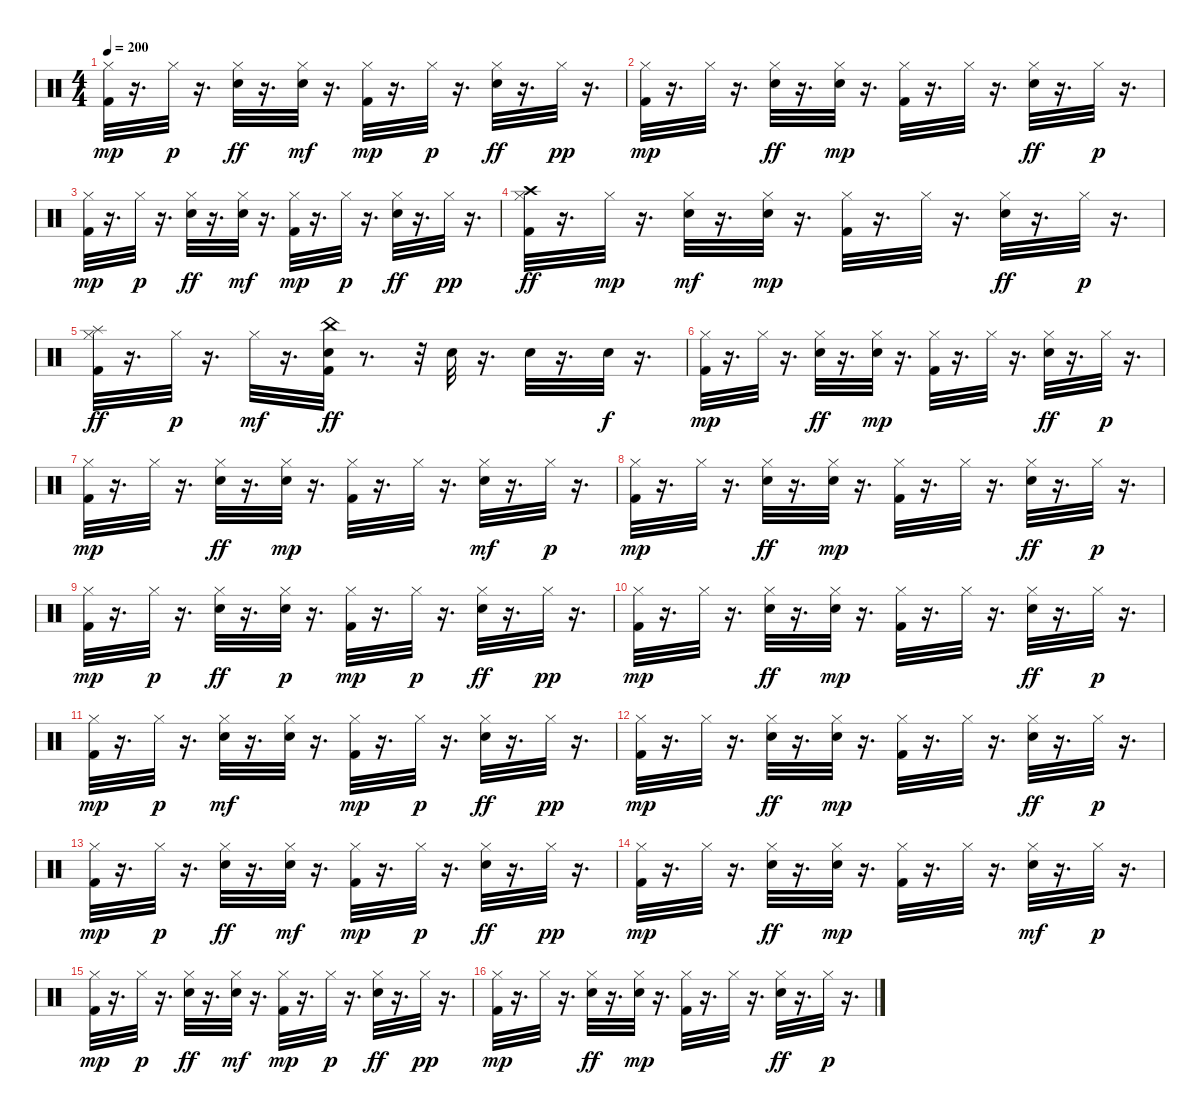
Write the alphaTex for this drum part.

\track "" {instrument percussion}
\staff {score}
\articulation defaults
\ts (4 4)
\tempo 200
\clef neutral
\ks c
("Kick (hit) 2" "Hi-Hat (closed)").32{dy mp} r.16{d} "Hi-Hat (closed)".32{dy p} r.16{d} ("Hi-Hat (closed)" "Electric Snare (hit)").32{dy ff} r.16{d} ("Hi-Hat (closed)" "Electric Snare (hit)").32{dy mf} r.16{d} ("Kick (hit) 2" "Hi-Hat (closed)").32{dy mp} r.16{d} "Hi-Hat (closed)".32{dy p} r.16{d} ("Hi-Hat (closed)" "Electric Snare (hit)").32{dy ff} r.16{d} "Hi-Hat (closed)".32{dy pp} r.16{d} |
("Kick (hit) 2" "Hi-Hat (closed)").32{dy mp} r.16{d} "Hi-Hat (closed)".32 r.16{d} ("Hi-Hat (closed)" "Electric Snare (hit)").32{dy ff} r.16{d} ("Hi-Hat (closed)" "Electric Snare (hit)").32{dy mp} r.16{d} ("Kick (hit) 2" "Hi-Hat (closed)").32 r.16{d} "Hi-Hat (closed)".32 r.16{d} ("Hi-Hat (closed)" "Electric Snare (hit)").32{dy ff} r.16{d} "Hi-Hat (closed)".32{dy p} r.16{d} |
("Kick (hit) 2" "Hi-Hat (closed)").32{dy mp} r.16{d} "Hi-Hat (closed)".32{dy p} r.16{d} ("Hi-Hat (closed)" "Electric Snare (hit)").32{dy ff} r.16{d} ("Hi-Hat (closed)" "Electric Snare (hit)").32{dy mf} r.16{d} ("Kick (hit) 2" "Hi-Hat (closed)").32{dy mp} r.16{d} "Hi-Hat (closed)".32{dy p} r.16{d} ("Hi-Hat (closed)" "Electric Snare (hit)").32{dy ff} r.16{d} "Hi-Hat (closed)".32{dy pp} r.16{d} |
("Kick (hit) 2" "Hi-Hat (closed)" "Crash high (hit)").32{dy ff} r.16{d} "Hi-Hat (closed)".32{dy mp} r.16{d} ("Electric Snare (hit)" "Hi-Hat (closed)").32{dy mf} r.16{d} ("Hi-Hat (closed)" "Electric Snare (hit)").32{dy mp} r.16{d} ("Kick (hit) 2" "Hi-Hat (closed)").32 r.16{d} "Hi-Hat (closed)".32 r.16{d} ("Hi-Hat (closed)" "Electric Snare (hit)").32{dy ff} r.16{d} "Hi-Hat (closed)".32{dy p} r.16{d} |
("Kick (hit) 2" "Hi-Hat (closed)" "Splash (hit)").32{dy ff} r.16{d} "Hi-Hat (closed)".32{dy p} r.16{d} "Hi-Hat (closed)".32{dy mf} r.16{d} ("Kick (hit) 2" "Electric Snare (hit)" "China (hit)").32{dy ff} r.8{d} r.32 "Electric Snare (hit)".32 r.16{d} "Electric Snare (hit)".32 r.16{d} "Electric Snare (hit)".32{dy f} r.16{d} |
("Kick (hit) 2" "Hi-Hat (closed)").32{dy mp} r.16{d} "Hi-Hat (closed)".32 r.16{d} ("Hi-Hat (closed)" "Electric Snare (hit)").32{dy ff} r.16{d} ("Hi-Hat (closed)" "Electric Snare (hit)").32{dy mp} r.16{d} ("Kick (hit) 2" "Hi-Hat (closed)").32 r.16{d} "Hi-Hat (closed)".32 r.16{d} ("Hi-Hat (closed)" "Electric Snare (hit)").32{dy ff} r.16{d} "Hi-Hat (closed)".32{dy p} r.16{d} |
("Kick (hit) 2" "Hi-Hat (closed)").32{dy mp} r.16{d} "Hi-Hat (closed)".32 r.16{d} ("Hi-Hat (closed)" "Electric Snare (hit)").32{dy ff} r.16{d} ("Hi-Hat (closed)" "Electric Snare (hit)").32{dy mp} r.16{d} ("Kick (hit) 2" "Hi-Hat (closed)").32 r.16{d} "Hi-Hat (closed)".32 r.16{d} ("Electric Snare (hit)" "Hi-Hat (closed)").32{dy mf} r.16{d} "Hi-Hat (closed)".32{dy p} r.16{d} |
("Kick (hit) 2" "Hi-Hat (closed)").32{dy mp} r.16{d} "Hi-Hat (closed)".32 r.16{d} ("Hi-Hat (closed)" "Electric Snare (hit)").32{dy ff} r.16{d} ("Hi-Hat (closed)" "Electric Snare (hit)").32{dy mp} r.16{d} ("Kick (hit) 2" "Hi-Hat (closed)").32 r.16{d} "Hi-Hat (closed)".32 r.16{d} ("Hi-Hat (closed)" "Electric Snare (hit)").32{dy ff} r.16{d} "Hi-Hat (closed)".32{dy p} r.16{d} |
("Kick (hit) 2" "Hi-Hat (closed)").32{dy mp} r.16{d} "Hi-Hat (closed)".32{dy p} r.16{d} ("Hi-Hat (closed)" "Electric Snare (hit)").32{dy ff} r.16{d} ("Electric Snare (hit)" "Hi-Hat (closed)").32{dy p} r.16{d} ("Kick (hit) 2" "Hi-Hat (closed)").32{dy mp} r.16{d} "Hi-Hat (closed)".32{dy p} r.16{d} ("Hi-Hat (closed)" "Electric Snare (hit)").32{dy ff} r.16{d} "Hi-Hat (closed)".32{dy pp} r.16{d} |
("Kick (hit) 2" "Hi-Hat (closed)").32{dy mp} r.16{d} "Hi-Hat (closed)".32 r.16{d} ("Hi-Hat (closed)" "Electric Snare (hit)").32{dy ff} r.16{d} ("Hi-Hat (closed)" "Electric Snare (hit)").32{dy mp} r.16{d} ("Kick (hit) 2" "Hi-Hat (closed)").32 r.16{d} "Hi-Hat (closed)".32 r.16{d} ("Hi-Hat (closed)" "Electric Snare (hit)").32{dy ff} r.16{d} "Hi-Hat (closed)".32{dy p} r.16{d} |
("Kick (hit) 2" "Hi-Hat (closed)").32{dy mp} r.16{d} "Hi-Hat (closed)".32{dy p} r.16{d} ("Electric Snare (hit)" "Hi-Hat (closed)").32{dy mf} r.16{d} ("Hi-Hat (closed)" "Electric Snare (hit)").32 r.16{d} ("Kick (hit) 2" "Hi-Hat (closed)").32{dy mp} r.16{d} "Hi-Hat (closed)".32{dy p} r.16{d} ("Hi-Hat (closed)" "Electric Snare (hit)").32{dy ff} r.16{d} "Hi-Hat (closed)".32{dy pp} r.16{d} |
("Kick (hit) 2" "Hi-Hat (closed)").32{dy mp} r.16{d} "Hi-Hat (closed)".32 r.16{d} ("Hi-Hat (closed)" "Electric Snare (hit)").32{dy ff} r.16{d} ("Hi-Hat (closed)" "Electric Snare (hit)").32{dy mp} r.16{d} ("Kick (hit) 2" "Hi-Hat (closed)").32 r.16{d} "Hi-Hat (closed)".32 r.16{d} ("Hi-Hat (closed)" "Electric Snare (hit)").32{dy ff} r.16{d} "Hi-Hat (closed)".32{dy p} r.16{d} |
("Kick (hit) 2" "Hi-Hat (closed)").32{dy mp} r.16{d} "Hi-Hat (closed)".32{dy p} r.16{d} ("Hi-Hat (closed)" "Electric Snare (hit)").32{dy ff} r.16{d} ("Hi-Hat (closed)" "Electric Snare (hit)").32{dy mf} r.16{d} ("Kick (hit) 2" "Hi-Hat (closed)").32{dy mp} r.16{d} "Hi-Hat (closed)".32{dy p} r.16{d} ("Hi-Hat (closed)" "Electric Snare (hit)").32{dy ff} r.16{d} "Hi-Hat (closed)".32{dy pp} r.16{d} |
("Kick (hit) 2" "Hi-Hat (closed)").32{dy mp} r.16{d} "Hi-Hat (closed)".32 r.16{d} ("Hi-Hat (closed)" "Electric Snare (hit)").32{dy ff} r.16{d} ("Hi-Hat (closed)" "Electric Snare (hit)").32{dy mp} r.16{d} ("Kick (hit) 2" "Hi-Hat (closed)").32 r.16{d} "Hi-Hat (closed)".32 r.16{d} ("Electric Snare (hit)" "Hi-Hat (closed)").32{dy mf} r.16{d} "Hi-Hat (closed)".32{dy p} r.16{d} |
("Kick (hit) 2" "Hi-Hat (closed)").32{dy mp} r.16{d} "Hi-Hat (closed)".32{dy p} r.16{d} ("Hi-Hat (closed)" "Electric Snare (hit)").32{dy ff} r.16{d} ("Hi-Hat (closed)" "Electric Snare (hit)").32{dy mf} r.16{d} ("Kick (hit) 2" "Hi-Hat (closed)").32{dy mp} r.16{d} "Hi-Hat (closed)".32{dy p} r.16{d} ("Hi-Hat (closed)" "Electric Snare (hit)").32{dy ff} r.16{d} "Hi-Hat (closed)".32{dy pp} r.16{d} |
("Kick (hit) 2" "Hi-Hat (closed)").32{dy mp} r.16{d} "Hi-Hat (closed)".32 r.16{d} ("Hi-Hat (closed)" "Electric Snare (hit)").32{dy ff} r.16{d} ("Electric Snare (hit)" "Hi-Hat (closed)").32{dy mp} r.16{d} ("Kick (hit) 2" "Hi-Hat (closed)").32 r.16{d} "Hi-Hat (closed)".32 r.16{d} ("Hi-Hat (closed)" "Electric Snare (hit)").32{dy ff} r.16{d} "Hi-Hat (closed)".32{dy p} r.16{d}
